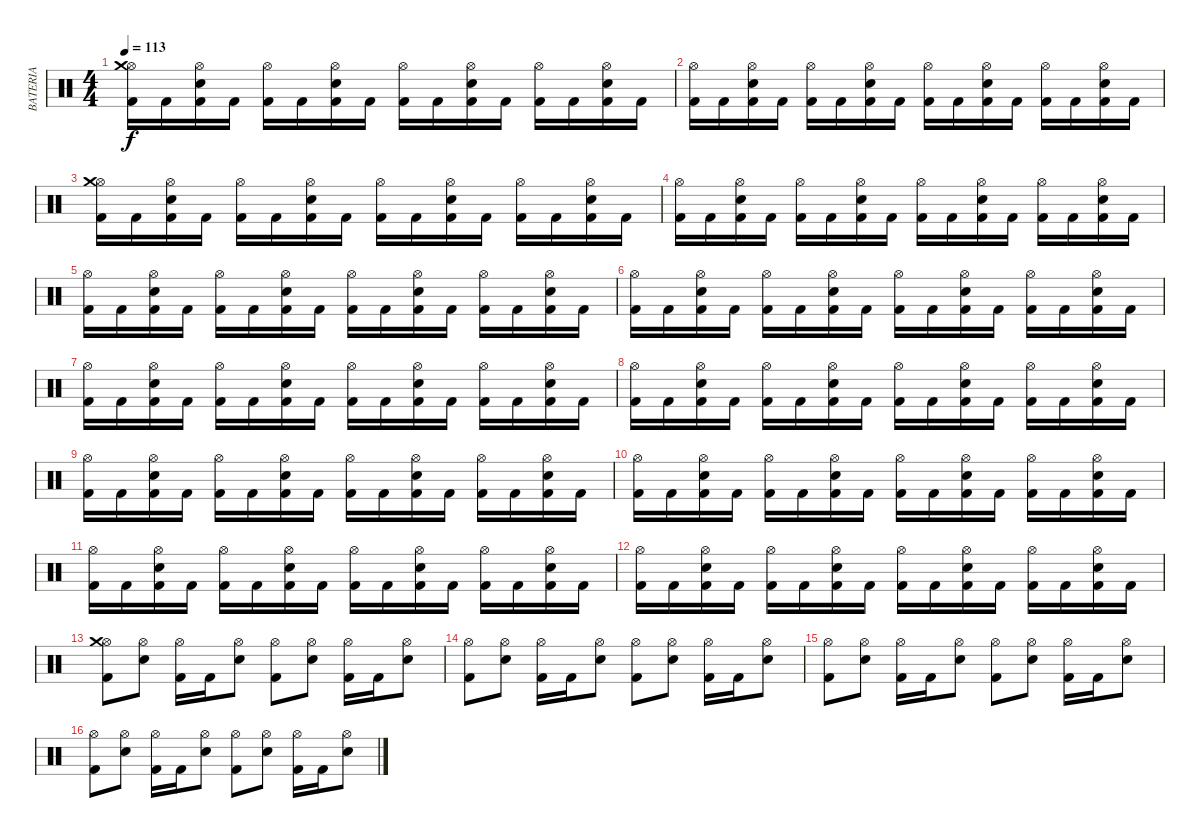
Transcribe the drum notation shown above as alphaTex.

\track ("BATERIA" "BATERIA") {instrument percussion}
\staff {score}
\articulation defaults
\ts (4 4)
\tempo 113
\clef neutral
\ks c
("Hi-Hat (open)" "Kick (hit) 2" "Crash medium (hit)").16{dy f} "Kick (hit) 2".16 ("Hi-Hat (open)" "Electric Snare (hit)" "Kick (hit) 2").16 "Kick (hit) 2".16 ("Hi-Hat (open)" "Kick (hit) 2").16 "Kick (hit) 2".16 ("Hi-Hat (open)" "Electric Snare (hit)" "Kick (hit) 2").16 "Kick (hit) 2".16 ("Hi-Hat (open)" "Kick (hit) 2").16 "Kick (hit) 2".16 ("Hi-Hat (open)" "Electric Snare (hit)" "Kick (hit) 2").16 "Kick (hit) 2".16 ("Hi-Hat (open)" "Kick (hit) 2").16 "Kick (hit) 2".16 ("Hi-Hat (open)" "Electric Snare (hit)" "Kick (hit) 2").16 "Kick (hit) 2".16 |
("Hi-Hat (open)" "Kick (hit) 2").16 "Kick (hit) 2".16 ("Hi-Hat (open)" "Electric Snare (hit)" "Kick (hit) 2").16 "Kick (hit) 2".16 ("Hi-Hat (open)" "Kick (hit) 2").16 "Kick (hit) 2".16 ("Hi-Hat (open)" "Electric Snare (hit)" "Kick (hit) 2").16 "Kick (hit) 2".16 ("Hi-Hat (open)" "Kick (hit) 2").16 "Kick (hit) 2".16 ("Hi-Hat (open)" "Electric Snare (hit)" "Kick (hit) 2").16 "Kick (hit) 2".16 ("Hi-Hat (open)" "Kick (hit) 2").16 "Kick (hit) 2".16 ("Hi-Hat (open)" "Electric Snare (hit)" "Kick (hit) 2").16 "Kick (hit) 2".16 |
("Hi-Hat (open)" "Kick (hit) 2" "Crash medium (hit)").16 "Kick (hit) 2".16 ("Hi-Hat (open)" "Electric Snare (hit)" "Kick (hit) 2").16 "Kick (hit) 2".16 ("Hi-Hat (open)" "Kick (hit) 2").16 "Kick (hit) 2".16 ("Hi-Hat (open)" "Electric Snare (hit)" "Kick (hit) 2").16 "Kick (hit) 2".16 ("Hi-Hat (open)" "Kick (hit) 2").16 "Kick (hit) 2".16 ("Hi-Hat (open)" "Electric Snare (hit)" "Kick (hit) 2").16 "Kick (hit) 2".16 ("Hi-Hat (open)" "Kick (hit) 2").16 "Kick (hit) 2".16 ("Hi-Hat (open)" "Electric Snare (hit)" "Kick (hit) 2").16 "Kick (hit) 2".16 |
("Hi-Hat (open)" "Kick (hit) 2").16 "Kick (hit) 2".16 ("Hi-Hat (open)" "Electric Snare (hit)" "Kick (hit) 2").16 "Kick (hit) 2".16 ("Hi-Hat (open)" "Kick (hit) 2").16 "Kick (hit) 2".16 ("Hi-Hat (open)" "Electric Snare (hit)" "Kick (hit) 2").16 "Kick (hit) 2".16 ("Hi-Hat (open)" "Kick (hit) 2").16 "Kick (hit) 2".16 ("Hi-Hat (open)" "Electric Snare (hit)" "Kick (hit) 2").16 "Kick (hit) 2".16 ("Hi-Hat (open)" "Kick (hit) 2").16 "Kick (hit) 2".16 ("Hi-Hat (open)" "Electric Snare (hit)" "Kick (hit) 2").16 "Kick (hit) 2".16 |
("Hi-Hat (open)" "Kick (hit) 2").16 "Kick (hit) 2".16 ("Hi-Hat (open)" "Electric Snare (hit)" "Kick (hit) 2").16 "Kick (hit) 2".16 ("Hi-Hat (open)" "Kick (hit) 2").16 "Kick (hit) 2".16 ("Hi-Hat (open)" "Electric Snare (hit)" "Kick (hit) 2").16 "Kick (hit) 2".16 ("Hi-Hat (open)" "Kick (hit) 2").16 "Kick (hit) 2".16 ("Hi-Hat (open)" "Electric Snare (hit)" "Kick (hit) 2").16 "Kick (hit) 2".16 ("Hi-Hat (open)" "Kick (hit) 2").16 "Kick (hit) 2".16 ("Hi-Hat (open)" "Electric Snare (hit)" "Kick (hit) 2").16 "Kick (hit) 2".16 |
("Hi-Hat (open)" "Kick (hit) 2").16 "Kick (hit) 2".16 ("Hi-Hat (open)" "Electric Snare (hit)" "Kick (hit) 2").16 "Kick (hit) 2".16 ("Hi-Hat (open)" "Kick (hit) 2").16 "Kick (hit) 2".16 ("Hi-Hat (open)" "Electric Snare (hit)" "Kick (hit) 2").16 "Kick (hit) 2".16 ("Hi-Hat (open)" "Kick (hit) 2").16 "Kick (hit) 2".16 ("Hi-Hat (open)" "Electric Snare (hit)" "Kick (hit) 2").16 "Kick (hit) 2".16 ("Hi-Hat (open)" "Kick (hit) 2").16 "Kick (hit) 2".16 ("Hi-Hat (open)" "Electric Snare (hit)" "Kick (hit) 2").16 "Kick (hit) 2".16 |
("Hi-Hat (open)" "Kick (hit) 2").16 "Kick (hit) 2".16 ("Hi-Hat (open)" "Electric Snare (hit)" "Kick (hit) 2").16 "Kick (hit) 2".16 ("Hi-Hat (open)" "Kick (hit) 2").16 "Kick (hit) 2".16 ("Hi-Hat (open)" "Electric Snare (hit)" "Kick (hit) 2").16 "Kick (hit) 2".16 ("Hi-Hat (open)" "Kick (hit) 2").16 "Kick (hit) 2".16 ("Hi-Hat (open)" "Electric Snare (hit)" "Kick (hit) 2").16 "Kick (hit) 2".16 ("Hi-Hat (open)" "Kick (hit) 2").16 "Kick (hit) 2".16 ("Hi-Hat (open)" "Electric Snare (hit)" "Kick (hit) 2").16 "Kick (hit) 2".16 |
("Hi-Hat (open)" "Kick (hit) 2").16 "Kick (hit) 2".16 ("Hi-Hat (open)" "Electric Snare (hit)" "Kick (hit) 2").16 "Kick (hit) 2".16 ("Hi-Hat (open)" "Kick (hit) 2").16 "Kick (hit) 2".16 ("Hi-Hat (open)" "Electric Snare (hit)" "Kick (hit) 2").16 "Kick (hit) 2".16 ("Hi-Hat (open)" "Kick (hit) 2").16 "Kick (hit) 2".16 ("Hi-Hat (open)" "Electric Snare (hit)" "Kick (hit) 2").16 "Kick (hit) 2".16 ("Hi-Hat (open)" "Kick (hit) 2").16 "Kick (hit) 2".16 ("Hi-Hat (open)" "Electric Snare (hit)" "Kick (hit) 2").16 "Kick (hit) 2".16 |
("Hi-Hat (open)" "Kick (hit) 2").16 "Kick (hit) 2".16 ("Hi-Hat (open)" "Electric Snare (hit)" "Kick (hit) 2").16 "Kick (hit) 2".16 ("Hi-Hat (open)" "Kick (hit) 2").16 "Kick (hit) 2".16 ("Hi-Hat (open)" "Electric Snare (hit)" "Kick (hit) 2").16 "Kick (hit) 2".16 ("Hi-Hat (open)" "Kick (hit) 2").16 "Kick (hit) 2".16 ("Hi-Hat (open)" "Electric Snare (hit)" "Kick (hit) 2").16 "Kick (hit) 2".16 ("Hi-Hat (open)" "Kick (hit) 2").16 "Kick (hit) 2".16 ("Hi-Hat (open)" "Electric Snare (hit)" "Kick (hit) 2").16 "Kick (hit) 2".16 |
("Hi-Hat (open)" "Kick (hit) 2").16 "Kick (hit) 2".16 ("Hi-Hat (open)" "Electric Snare (hit)" "Kick (hit) 2").16 "Kick (hit) 2".16 ("Hi-Hat (open)" "Kick (hit) 2").16 "Kick (hit) 2".16 ("Hi-Hat (open)" "Electric Snare (hit)" "Kick (hit) 2").16 "Kick (hit) 2".16 ("Hi-Hat (open)" "Kick (hit) 2").16 "Kick (hit) 2".16 ("Hi-Hat (open)" "Electric Snare (hit)" "Kick (hit) 2").16 "Kick (hit) 2".16 ("Hi-Hat (open)" "Kick (hit) 2").16 "Kick (hit) 2".16 ("Hi-Hat (open)" "Electric Snare (hit)" "Kick (hit) 2").16 "Kick (hit) 2".16 |
("Hi-Hat (open)" "Kick (hit) 2").16 "Kick (hit) 2".16 ("Hi-Hat (open)" "Electric Snare (hit)" "Kick (hit) 2").16 "Kick (hit) 2".16 ("Hi-Hat (open)" "Kick (hit) 2").16 "Kick (hit) 2".16 ("Hi-Hat (open)" "Electric Snare (hit)" "Kick (hit) 2").16 "Kick (hit) 2".16 ("Hi-Hat (open)" "Kick (hit) 2").16 "Kick (hit) 2".16 ("Hi-Hat (open)" "Electric Snare (hit)" "Kick (hit) 2").16 "Kick (hit) 2".16 ("Hi-Hat (open)" "Kick (hit) 2").16 "Kick (hit) 2".16 ("Hi-Hat (open)" "Electric Snare (hit)" "Kick (hit) 2").16 "Kick (hit) 2".16 |
("Hi-Hat (open)" "Kick (hit) 2").16 "Kick (hit) 2".16 ("Hi-Hat (open)" "Electric Snare (hit)" "Kick (hit) 2").16 "Kick (hit) 2".16 ("Hi-Hat (open)" "Kick (hit) 2").16 "Kick (hit) 2".16 ("Hi-Hat (open)" "Electric Snare (hit)" "Kick (hit) 2").16 "Kick (hit) 2".16 ("Hi-Hat (open)" "Kick (hit) 2").16 "Kick (hit) 2".16 ("Hi-Hat (open)" "Electric Snare (hit)" "Kick (hit) 2").16 "Kick (hit) 2".16 ("Hi-Hat (open)" "Kick (hit) 2").16 "Kick (hit) 2".16 ("Hi-Hat (open)" "Electric Snare (hit)" "Kick (hit) 2").16 "Kick (hit) 2".16 |
("Hi-Hat (open)" "Kick (hit) 2" "Crash medium (hit)").8 ("Hi-Hat (open)" "Electric Snare (hit)").8 ("Hi-Hat (open)" "Kick (hit) 2").16 "Kick (hit) 2".16 ("Hi-Hat (open)" "Electric Snare (hit)").8 ("Hi-Hat (open)" "Kick (hit) 2").8 ("Hi-Hat (open)" "Electric Snare (hit)").8 ("Hi-Hat (open)" "Kick (hit) 2").16 "Kick (hit) 2".16 ("Hi-Hat (open)" "Electric Snare (hit)").8 |
("Hi-Hat (open)" "Kick (hit) 2").8 ("Hi-Hat (open)" "Electric Snare (hit)").8 ("Hi-Hat (open)" "Kick (hit) 2").16 "Kick (hit) 2".16 ("Hi-Hat (open)" "Electric Snare (hit)").8 ("Hi-Hat (open)" "Kick (hit) 2").8 ("Hi-Hat (open)" "Electric Snare (hit)").8 ("Hi-Hat (open)" "Kick (hit) 2").16 "Kick (hit) 2".16 ("Hi-Hat (open)" "Electric Snare (hit)").8 |
("Hi-Hat (open)" "Kick (hit) 2").8 ("Hi-Hat (open)" "Electric Snare (hit)").8 ("Hi-Hat (open)" "Kick (hit) 2").16 "Kick (hit) 2".16 ("Hi-Hat (open)" "Electric Snare (hit)").8 ("Hi-Hat (open)" "Kick (hit) 2").8 ("Hi-Hat (open)" "Electric Snare (hit)").8 ("Hi-Hat (open)" "Kick (hit) 2").16 "Kick (hit) 2".16 ("Hi-Hat (open)" "Electric Snare (hit)").8 |
("Hi-Hat (open)" "Kick (hit) 2").8 ("Hi-Hat (open)" "Electric Snare (hit)").8 ("Hi-Hat (open)" "Kick (hit) 2").16 "Kick (hit) 2".16 ("Hi-Hat (open)" "Electric Snare (hit)").8 ("Hi-Hat (open)" "Kick (hit) 2").8 ("Hi-Hat (open)" "Electric Snare (hit)").8 ("Hi-Hat (open)" "Kick (hit) 2").16 "Kick (hit) 2".16 ("Hi-Hat (open)" "Electric Snare (hit)").8
